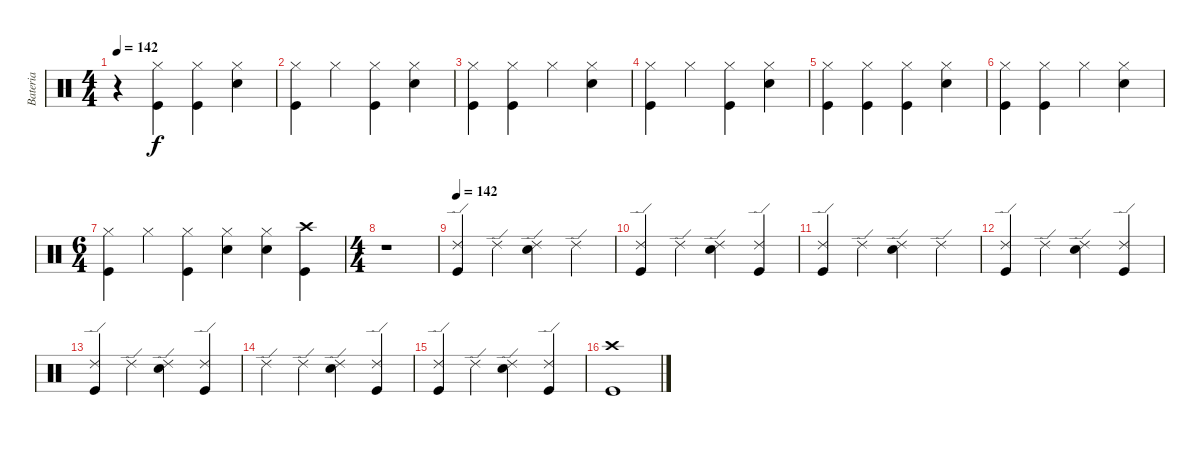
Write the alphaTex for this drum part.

\track ("Bateria" "Bateria") {instrument percussion}
\staff {score}
\articulation defaults
\ts (4 4)
\tempo 142
\clef neutral
\ks c
r.4{dy f} ("Hi-Hat (closed)" "Kick (hit)").4 ("Hi-Hat (closed)" "Kick (hit)").4 ("Hi-Hat (closed)" "Snare (hit) 2").4 |
("Hi-Hat (closed)" "Kick (hit)").4 "Hi-Hat (closed)".4 ("Hi-Hat (closed)" "Kick (hit)").4 ("Hi-Hat (closed)" "Snare (hit) 2").4 |
("Hi-Hat (closed)" "Kick (hit)").4 ("Hi-Hat (closed)" "Kick (hit)").4 "Hi-Hat (closed)".4 ("Hi-Hat (closed)" "Snare (hit) 2").4 |
("Hi-Hat (closed)" "Kick (hit)").4 "Hi-Hat (closed)".4 ("Hi-Hat (closed)" "Kick (hit)").4 ("Hi-Hat (closed)" "Snare (hit) 2").4 |
("Hi-Hat (closed)" "Kick (hit)").4 ("Hi-Hat (closed)" "Kick (hit)").4 ("Hi-Hat (closed)" "Kick (hit)").4 ("Hi-Hat (closed)" "Snare (hit) 2").4 |
("Hi-Hat (closed)" "Kick (hit)").4 ("Hi-Hat (closed)" "Kick (hit)").4 "Hi-Hat (closed)".4 ("Hi-Hat (closed)" "Snare (hit) 2").4 |
\ts (6 4)
("Hi-Hat (closed)" "Kick (hit)").4 "Hi-Hat (closed)".4 ("Hi-Hat (closed)" "Kick (hit)").4 ("Hi-Hat (closed)" "Snare (hit) 2").4 ("Hi-Hat (closed)" "Snare (hit) 2").4 ("Crash high (hit)" "Kick (hit)").4 |
\ts (4 4)
r.1 |
\tempo 142
("Ride (edge) 2" "Kick (hit)").4 "Ride (edge) 2".4 ("Ride (edge) 2" "Snare (hit) 2").4 "Ride (edge) 2".4 |
("Ride (edge) 2" "Kick (hit)").4 "Ride (edge) 2".4 ("Ride (edge) 2" "Snare (hit) 2").4 ("Ride (edge) 2" "Kick (hit)").4 |
("Ride (edge) 2" "Kick (hit)").4 "Ride (edge) 2".4 ("Ride (edge) 2" "Snare (hit) 2").4 "Ride (edge) 2".4 |
("Ride (edge) 2" "Kick (hit)").4 "Ride (edge) 2".4 ("Ride (edge) 2" "Snare (hit) 2").4 ("Ride (edge) 2" "Kick (hit)").4 |
("Ride (edge) 2" "Kick (hit)").4 "Ride (edge) 2".4 ("Ride (edge) 2" "Snare (hit) 2").4 ("Ride (edge) 2" "Kick (hit)").4 |
"Ride (edge) 2".4 "Ride (edge) 2".4 ("Ride (edge) 2" "Snare (hit) 2").4 ("Ride (edge) 2" "Kick (hit)").4 |
("Ride (edge) 2" "Kick (hit)").4 "Ride (edge) 2".4 ("Ride (edge) 2" "Snare (hit) 2").4 ("Ride (edge) 2" "Kick (hit)").4 |
("Crash high (hit)" "Kick (hit)").1
